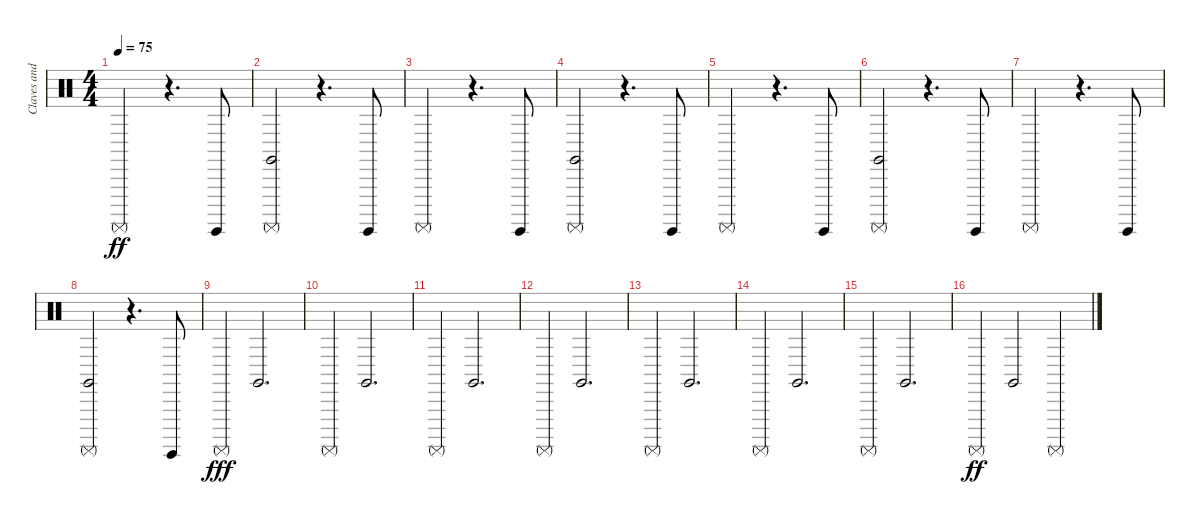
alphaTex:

\track ("Claves and Surdo's" "Claves and") {instrument percussion}
\staff {score}
\articulation defaults
\ts (4 4)
\tempo 75
\clef neutral
\ks c "Surdo (mute)".2{dy ff}
r.4{d} "Surdo (hit)".8 |
("Claves (hit)" "Surdo (mute)").2 r.4{d} "Surdo (hit)".8 |
"Surdo (mute)".2 r.4{d} "Surdo (hit)".8 |
("Claves (hit)" "Surdo (mute)").2 r.4{d} "Surdo (hit)".8 |
"Surdo (mute)".2 r.4{d} "Surdo (hit)".8 |
("Claves (hit)" "Surdo (mute)").2 r.4{d} "Surdo (hit)".8 |
"Surdo (mute)".2 r.4{d} "Surdo (hit)".8 |
("Claves (hit)" "Surdo (mute)").2 r.4{d} "Surdo (hit)".8 |
"Surdo (mute)".4{dy fff} "Claves (hit)".2{d} |
"Surdo (mute)".4 "Claves (hit)".2{d} |
"Surdo (mute)".4 "Claves (hit)".2{d} |
"Surdo (mute)".4 "Claves (hit)".2{d} |
"Surdo (mute)".4 "Claves (hit)".2{d} |
"Surdo (mute)".4 "Claves (hit)".2{d} |
"Surdo (mute)".4 "Claves (hit)".2{d} |
"Surdo (mute)".4{dy ff} "Claves (hit)".2 "Surdo (mute)".4
